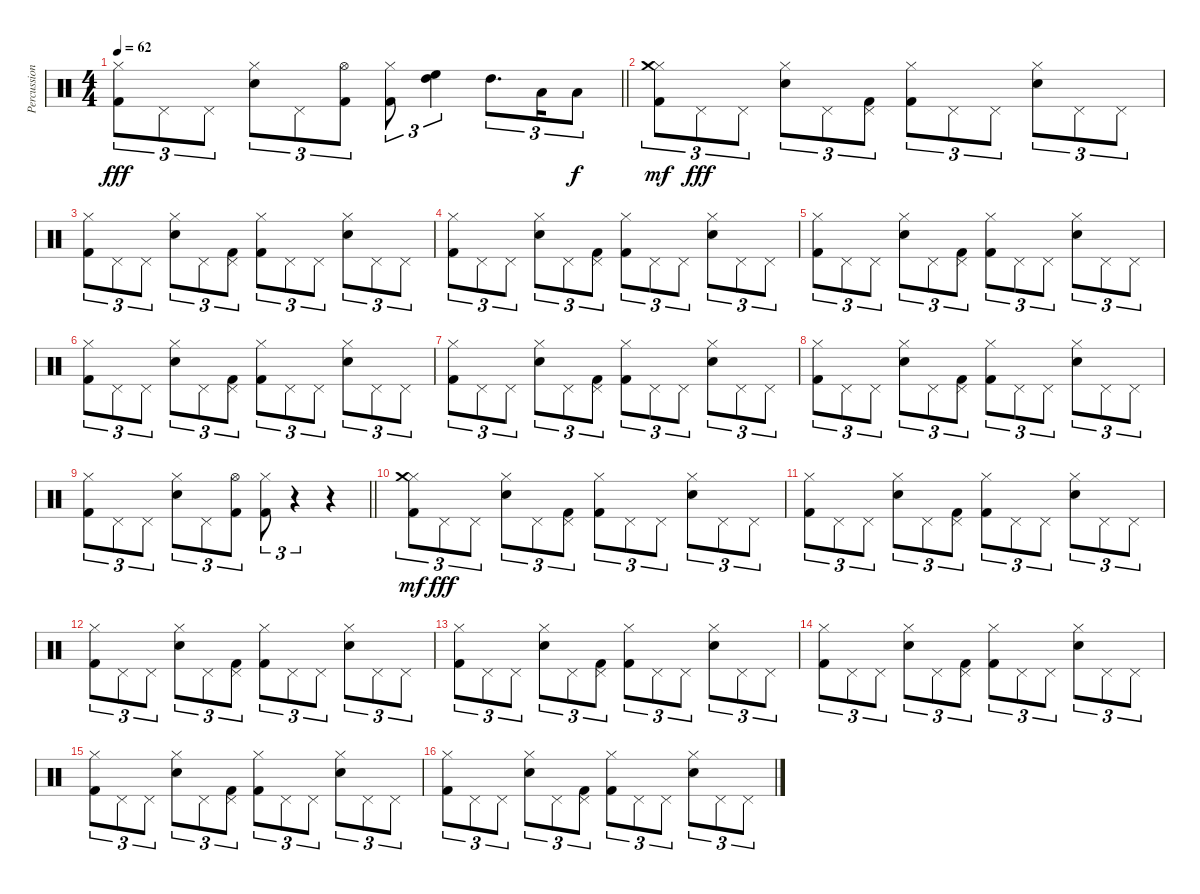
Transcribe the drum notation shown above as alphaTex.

\track ("Percussion" "Percussion") {instrument percussion}
\staff {score}
\articulation defaults
\ts (4 4)
\tempo 62
\clef neutral
\barLineRight lightlight
\ks c
("Kick (hit) 2" "Hi-Hat (closed)").8{tu (3 2) dy fff} "Pedal Hi-Hat (hit)".8{tu (3 2)} "Pedal Hi-Hat (hit)".8{tu (3 2)} ("Snare (hit) 2" "Hi-Hat (closed)").8{tu (3 2)} "Pedal Hi-Hat (hit)".8{tu (3 2)} ("Kick (hit) 2" "Hi-Hat (open)").8{tu (3 2)} ("Kick (hit) 2" "Hi-Hat (closed)").8{tu (3 2)} ("High Floor Tom (hit)" "High Tom (hit)").4{tu (3 2)} "High Tom (hit)".8{d tu (3 2)} "Low Tom (hit)".16{tu (3 2)} "Low Floor Tom (hit)".8{tu (3 2) dy f} |
("Kick (hit) 2" "Hi-Hat (closed)" "Crash medium (hit)").8{tu (3 2) dy mf} "Pedal Hi-Hat (hit)".8{tu (3 2) dy fff} "Pedal Hi-Hat (hit)".8{tu (3 2)} ("Snare (hit) 2" "Hi-Hat (closed)").8{tu (3 2)} "Pedal Hi-Hat (hit)".8{tu (3 2)} ("Kick (hit) 2" "Pedal Hi-Hat (hit)").8{tu (3 2)} ("Kick (hit) 2" "Hi-Hat (closed)").8{tu (3 2)} "Pedal Hi-Hat (hit)".8{tu (3 2)} "Pedal Hi-Hat (hit)".8{tu (3 2)} ("Snare (hit) 2" "Hi-Hat (closed)").8{tu (3 2)} "Pedal Hi-Hat (hit)".8{tu (3 2)} "Pedal Hi-Hat (hit)".8{tu (3 2)} |
("Kick (hit) 2" "Hi-Hat (closed)").8{tu (3 2)} "Pedal Hi-Hat (hit)".8{tu (3 2)} "Pedal Hi-Hat (hit)".8{tu (3 2)} ("Snare (hit) 2" "Hi-Hat (closed)").8{tu (3 2)} "Pedal Hi-Hat (hit)".8{tu (3 2)} ("Kick (hit) 2" "Pedal Hi-Hat (hit)").8{tu (3 2)} ("Kick (hit) 2" "Hi-Hat (closed)").8{tu (3 2)} "Pedal Hi-Hat (hit)".8{tu (3 2)} "Pedal Hi-Hat (hit)".8{tu (3 2)} ("Snare (hit) 2" "Hi-Hat (closed)").8{tu (3 2)} "Pedal Hi-Hat (hit)".8{tu (3 2)} "Pedal Hi-Hat (hit)".8{tu (3 2)} |
("Kick (hit) 2" "Hi-Hat (closed)").8{tu (3 2)} "Pedal Hi-Hat (hit)".8{tu (3 2)} "Pedal Hi-Hat (hit)".8{tu (3 2)} ("Snare (hit) 2" "Hi-Hat (closed)").8{tu (3 2)} "Pedal Hi-Hat (hit)".8{tu (3 2)} ("Kick (hit) 2" "Pedal Hi-Hat (hit)").8{tu (3 2)} ("Kick (hit) 2" "Hi-Hat (closed)").8{tu (3 2)} "Pedal Hi-Hat (hit)".8{tu (3 2)} "Pedal Hi-Hat (hit)".8{tu (3 2)} ("Snare (hit) 2" "Hi-Hat (closed)").8{tu (3 2)} "Pedal Hi-Hat (hit)".8{tu (3 2)} "Pedal Hi-Hat (hit)".8{tu (3 2)} |
("Kick (hit) 2" "Hi-Hat (closed)").8{tu (3 2)} "Pedal Hi-Hat (hit)".8{tu (3 2)} "Pedal Hi-Hat (hit)".8{tu (3 2)} ("Snare (hit) 2" "Hi-Hat (closed)").8{tu (3 2)} "Pedal Hi-Hat (hit)".8{tu (3 2)} ("Kick (hit) 2" "Pedal Hi-Hat (hit)").8{tu (3 2)} ("Kick (hit) 2" "Hi-Hat (closed)").8{tu (3 2)} "Pedal Hi-Hat (hit)".8{tu (3 2)} "Pedal Hi-Hat (hit)".8{tu (3 2)} ("Snare (hit) 2" "Hi-Hat (closed)").8{tu (3 2)} "Pedal Hi-Hat (hit)".8{tu (3 2)} "Pedal Hi-Hat (hit)".8{tu (3 2)} |
("Kick (hit) 2" "Hi-Hat (closed)").8{tu (3 2)} "Pedal Hi-Hat (hit)".8{tu (3 2)} "Pedal Hi-Hat (hit)".8{tu (3 2)} ("Snare (hit) 2" "Hi-Hat (closed)").8{tu (3 2)} "Pedal Hi-Hat (hit)".8{tu (3 2)} ("Kick (hit) 2" "Pedal Hi-Hat (hit)").8{tu (3 2)} ("Kick (hit) 2" "Hi-Hat (closed)").8{tu (3 2)} "Pedal Hi-Hat (hit)".8{tu (3 2)} "Pedal Hi-Hat (hit)".8{tu (3 2)} ("Snare (hit) 2" "Hi-Hat (closed)").8{tu (3 2)} "Pedal Hi-Hat (hit)".8{tu (3 2)} "Pedal Hi-Hat (hit)".8{tu (3 2)} |
("Kick (hit) 2" "Hi-Hat (closed)").8{tu (3 2)} "Pedal Hi-Hat (hit)".8{tu (3 2)} "Pedal Hi-Hat (hit)".8{tu (3 2)} ("Snare (hit) 2" "Hi-Hat (closed)").8{tu (3 2)} "Pedal Hi-Hat (hit)".8{tu (3 2)} ("Kick (hit) 2" "Pedal Hi-Hat (hit)").8{tu (3 2)} ("Kick (hit) 2" "Hi-Hat (closed)").8{tu (3 2)} "Pedal Hi-Hat (hit)".8{tu (3 2)} "Pedal Hi-Hat (hit)".8{tu (3 2)} ("Snare (hit) 2" "Hi-Hat (closed)").8{tu (3 2)} "Pedal Hi-Hat (hit)".8{tu (3 2)} "Pedal Hi-Hat (hit)".8{tu (3 2)} |
("Kick (hit) 2" "Hi-Hat (closed)").8{tu (3 2)} "Pedal Hi-Hat (hit)".8{tu (3 2)} "Pedal Hi-Hat (hit)".8{tu (3 2)} ("Snare (hit) 2" "Hi-Hat (closed)").8{tu (3 2)} "Pedal Hi-Hat (hit)".8{tu (3 2)} ("Kick (hit) 2" "Pedal Hi-Hat (hit)").8{tu (3 2)} ("Kick (hit) 2" "Hi-Hat (closed)").8{tu (3 2)} "Pedal Hi-Hat (hit)".8{tu (3 2)} "Pedal Hi-Hat (hit)".8{tu (3 2)} ("Snare (hit) 2" "Hi-Hat (closed)").8{tu (3 2)} "Pedal Hi-Hat (hit)".8{tu (3 2)} "Pedal Hi-Hat (hit)".8{tu (3 2)} |
\barLineRight lightlight
("Kick (hit) 2" "Hi-Hat (closed)").8{tu (3 2)} "Pedal Hi-Hat (hit)".8{tu (3 2)} "Pedal Hi-Hat (hit)".8{tu (3 2)} ("Snare (hit) 2" "Hi-Hat (closed)").8{tu (3 2)} "Pedal Hi-Hat (hit)".8{tu (3 2)} ("Kick (hit) 2" "Hi-Hat (open)").8{tu (3 2)} ("Kick (hit) 2" "Hi-Hat (closed)").8{tu (3 2)} r.4{tu (3 2)} r.4 |
("Kick (hit) 2" "Hi-Hat (closed)" "Crash medium (hit)").8{tu (3 2) dy mf} "Pedal Hi-Hat (hit)".8{tu (3 2) dy fff} "Pedal Hi-Hat (hit)".8{tu (3 2)} ("Snare (hit) 2" "Hi-Hat (closed)").8{tu (3 2)} "Pedal Hi-Hat (hit)".8{tu (3 2)} ("Kick (hit) 2" "Pedal Hi-Hat (hit)").8{tu (3 2)} ("Kick (hit) 2" "Hi-Hat (closed)").8{tu (3 2)} "Pedal Hi-Hat (hit)".8{tu (3 2)} "Pedal Hi-Hat (hit)".8{tu (3 2)} ("Snare (hit) 2" "Hi-Hat (closed)").8{tu (3 2)} "Pedal Hi-Hat (hit)".8{tu (3 2)} "Pedal Hi-Hat (hit)".8{tu (3 2)} |
("Kick (hit) 2" "Hi-Hat (closed)").8{tu (3 2)} "Pedal Hi-Hat (hit)".8{tu (3 2)} "Pedal Hi-Hat (hit)".8{tu (3 2)} ("Snare (hit) 2" "Hi-Hat (closed)").8{tu (3 2)} "Pedal Hi-Hat (hit)".8{tu (3 2)} ("Kick (hit) 2" "Pedal Hi-Hat (hit)").8{tu (3 2)} ("Kick (hit) 2" "Hi-Hat (closed)").8{tu (3 2)} "Pedal Hi-Hat (hit)".8{tu (3 2)} "Pedal Hi-Hat (hit)".8{tu (3 2)} ("Snare (hit) 2" "Hi-Hat (closed)").8{tu (3 2)} "Pedal Hi-Hat (hit)".8{tu (3 2)} "Pedal Hi-Hat (hit)".8{tu (3 2)} |
("Kick (hit) 2" "Hi-Hat (closed)").8{tu (3 2)} "Pedal Hi-Hat (hit)".8{tu (3 2)} "Pedal Hi-Hat (hit)".8{tu (3 2)} ("Snare (hit) 2" "Hi-Hat (closed)").8{tu (3 2)} "Pedal Hi-Hat (hit)".8{tu (3 2)} ("Kick (hit) 2" "Pedal Hi-Hat (hit)").8{tu (3 2)} ("Kick (hit) 2" "Hi-Hat (closed)").8{tu (3 2)} "Pedal Hi-Hat (hit)".8{tu (3 2)} "Pedal Hi-Hat (hit)".8{tu (3 2)} ("Snare (hit) 2" "Hi-Hat (closed)").8{tu (3 2)} "Pedal Hi-Hat (hit)".8{tu (3 2)} "Pedal Hi-Hat (hit)".8{tu (3 2)} |
("Kick (hit) 2" "Hi-Hat (closed)").8{tu (3 2)} "Pedal Hi-Hat (hit)".8{tu (3 2)} "Pedal Hi-Hat (hit)".8{tu (3 2)} ("Snare (hit) 2" "Hi-Hat (closed)").8{tu (3 2)} "Pedal Hi-Hat (hit)".8{tu (3 2)} ("Kick (hit) 2" "Pedal Hi-Hat (hit)").8{tu (3 2)} ("Kick (hit) 2" "Hi-Hat (closed)").8{tu (3 2)} "Pedal Hi-Hat (hit)".8{tu (3 2)} "Pedal Hi-Hat (hit)".8{tu (3 2)} ("Snare (hit) 2" "Hi-Hat (closed)").8{tu (3 2)} "Pedal Hi-Hat (hit)".8{tu (3 2)} "Pedal Hi-Hat (hit)".8{tu (3 2)} |
("Kick (hit) 2" "Hi-Hat (closed)").8{tu (3 2)} "Pedal Hi-Hat (hit)".8{tu (3 2)} "Pedal Hi-Hat (hit)".8{tu (3 2)} ("Snare (hit) 2" "Hi-Hat (closed)").8{tu (3 2)} "Pedal Hi-Hat (hit)".8{tu (3 2)} ("Kick (hit) 2" "Pedal Hi-Hat (hit)").8{tu (3 2)} ("Kick (hit) 2" "Hi-Hat (closed)").8{tu (3 2)} "Pedal Hi-Hat (hit)".8{tu (3 2)} "Pedal Hi-Hat (hit)".8{tu (3 2)} ("Snare (hit) 2" "Hi-Hat (closed)").8{tu (3 2)} "Pedal Hi-Hat (hit)".8{tu (3 2)} "Pedal Hi-Hat (hit)".8{tu (3 2)} |
("Kick (hit) 2" "Hi-Hat (closed)").8{tu (3 2)} "Pedal Hi-Hat (hit)".8{tu (3 2)} "Pedal Hi-Hat (hit)".8{tu (3 2)} ("Snare (hit) 2" "Hi-Hat (closed)").8{tu (3 2)} "Pedal Hi-Hat (hit)".8{tu (3 2)} ("Kick (hit) 2" "Pedal Hi-Hat (hit)").8{tu (3 2)} ("Kick (hit) 2" "Hi-Hat (closed)").8{tu (3 2)} "Pedal Hi-Hat (hit)".8{tu (3 2)} "Pedal Hi-Hat (hit)".8{tu (3 2)} ("Snare (hit) 2" "Hi-Hat (closed)").8{tu (3 2)} "Pedal Hi-Hat (hit)".8{tu (3 2)} "Pedal Hi-Hat (hit)".8{tu (3 2)} |
("Kick (hit) 2" "Hi-Hat (closed)").8{tu (3 2)} "Pedal Hi-Hat (hit)".8{tu (3 2)} "Pedal Hi-Hat (hit)".8{tu (3 2)} ("Snare (hit) 2" "Hi-Hat (closed)").8{tu (3 2)} "Pedal Hi-Hat (hit)".8{tu (3 2)} ("Kick (hit) 2" "Pedal Hi-Hat (hit)").8{tu (3 2)} ("Kick (hit) 2" "Hi-Hat (closed)").8{tu (3 2)} "Pedal Hi-Hat (hit)".8{tu (3 2)} "Pedal Hi-Hat (hit)".8{tu (3 2)} ("Snare (hit) 2" "Hi-Hat (closed)").8{tu (3 2)} "Pedal Hi-Hat (hit)".8{tu (3 2)} "Pedal Hi-Hat (hit)".8{tu (3 2)}
